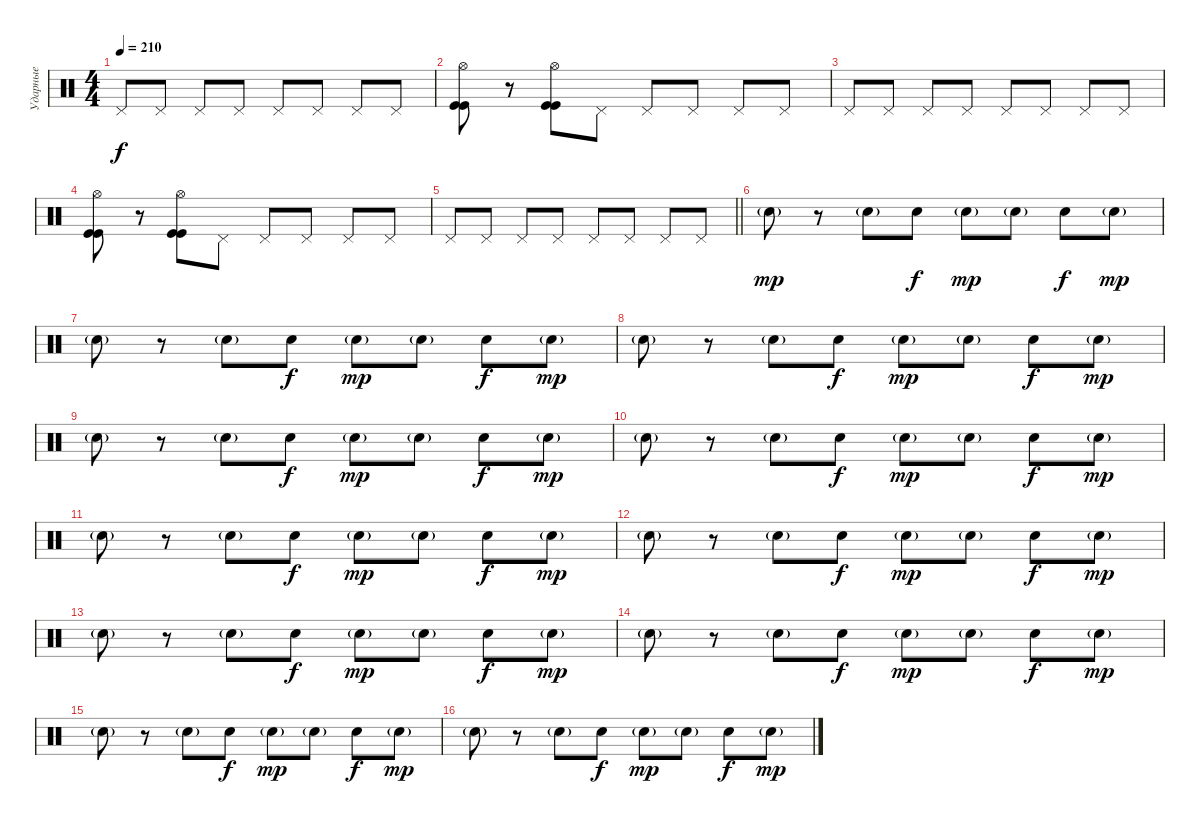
\track ("Ударные" "Ударные") {instrument percussion}
\staff {score}
\articulation defaults
\ts (4 4)
\tempo 210
\clef neutral
\ks c "Pedal Hi-Hat (hit)".8{dy f} "Pedal Hi-Hat (hit)".8 "Pedal Hi-Hat (hit)".8 "Pedal Hi-Hat (hit)".8 "Pedal Hi-Hat (hit)".8 "Pedal Hi-Hat (hit)".8 "Pedal Hi-Hat (hit)".8 "Pedal Hi-Hat (hit)".8
|
("Hi-Hat (open)" "Kick (hit)" "Kick (hit)").8 r.8 ("Hi-Hat (open)" "Kick (hit)" "Kick (hit)").8 "Pedal Hi-Hat (hit)".8 "Pedal Hi-Hat (hit)".8 "Pedal Hi-Hat (hit)".8 "Pedal Hi-Hat (hit)".8 "Pedal Hi-Hat (hit)".8 |
"Pedal Hi-Hat (hit)".8 "Pedal Hi-Hat (hit)".8 "Pedal Hi-Hat (hit)".8 "Pedal Hi-Hat (hit)".8 "Pedal Hi-Hat (hit)".8 "Pedal Hi-Hat (hit)".8 "Pedal Hi-Hat (hit)".8 "Pedal Hi-Hat (hit)".8 |
("Hi-Hat (open)" "Kick (hit)" "Kick (hit)").8 r.8 ("Hi-Hat (open)" "Kick (hit)" "Kick (hit)").8 "Pedal Hi-Hat (hit)".8 "Pedal Hi-Hat (hit)".8 "Pedal Hi-Hat (hit)".8 "Pedal Hi-Hat (hit)".8 "Pedal Hi-Hat (hit)".8 |
\barLineRight lightlight "Pedal Hi-Hat (hit)".8 "Pedal Hi-Hat (hit)".8 "Pedal Hi-Hat (hit)".8 "Pedal Hi-Hat (hit)".8 "Pedal Hi-Hat (hit)".8 "Pedal Hi-Hat (hit)".8 "Pedal Hi-Hat (hit)".8 "Pedal Hi-Hat (hit)".8
|
"Electric Snare (hit)"{g}.8{dy mp} r.8 "Electric Snare (hit)"{g}.8 "Electric Snare (hit)".8{dy f} "Electric Snare (hit)"{g}.8{dy mp} "Electric Snare (hit)"{g}.8 "Electric Snare (hit)".8{dy f} "Electric Snare (hit)"{g}.8{dy mp} |
"Electric Snare (hit)"{g}.8 r.8 "Electric Snare (hit)"{g}.8 "Electric Snare (hit)".8{dy f} "Electric Snare (hit)"{g}.8{dy mp} "Electric Snare (hit)"{g}.8 "Electric Snare (hit)".8{dy f} "Electric Snare (hit)"{g}.8{dy mp} |
"Electric Snare (hit)"{g}.8 r.8 "Electric Snare (hit)"{g}.8 "Electric Snare (hit)".8{dy f} "Electric Snare (hit)"{g}.8{dy mp} "Electric Snare (hit)"{g}.8 "Electric Snare (hit)".8{dy f} "Electric Snare (hit)"{g}.8{dy mp} |
"Electric Snare (hit)"{g}.8 r.8 "Electric Snare (hit)"{g}.8 "Electric Snare (hit)".8{dy f} "Electric Snare (hit)"{g}.8{dy mp} "Electric Snare (hit)"{g}.8 "Electric Snare (hit)".8{dy f} "Electric Snare (hit)"{g}.8{dy mp} |
"Electric Snare (hit)"{g}.8 r.8 "Electric Snare (hit)"{g}.8 "Electric Snare (hit)".8{dy f} "Electric Snare (hit)"{g}.8{dy mp} "Electric Snare (hit)"{g}.8 "Electric Snare (hit)".8{dy f} "Electric Snare (hit)"{g}.8{dy mp} |
"Electric Snare (hit)"{g}.8 r.8 "Electric Snare (hit)"{g}.8 "Electric Snare (hit)".8{dy f} "Electric Snare (hit)"{g}.8{dy mp} "Electric Snare (hit)"{g}.8 "Electric Snare (hit)".8{dy f} "Electric Snare (hit)"{g}.8{dy mp} |
"Electric Snare (hit)"{g}.8 r.8 "Electric Snare (hit)"{g}.8 "Electric Snare (hit)".8{dy f} "Electric Snare (hit)"{g}.8{dy mp} "Electric Snare (hit)"{g}.8 "Electric Snare (hit)".8{dy f} "Electric Snare (hit)"{g}.8{dy mp} |
"Electric Snare (hit)"{g}.8 r.8 "Electric Snare (hit)"{g}.8 "Electric Snare (hit)".8{dy f} "Electric Snare (hit)"{g}.8{dy mp} "Electric Snare (hit)"{g}.8 "Electric Snare (hit)".8{dy f} "Electric Snare (hit)"{g}.8{dy mp} |
"Electric Snare (hit)"{g}.8 r.8 "Electric Snare (hit)"{g}.8 "Electric Snare (hit)".8{dy f} "Electric Snare (hit)"{g}.8{dy mp} "Electric Snare (hit)"{g}.8 "Electric Snare (hit)".8{dy f} "Electric Snare (hit)"{g}.8{dy mp} |
"Electric Snare (hit)"{g}.8 r.8 "Electric Snare (hit)"{g}.8 "Electric Snare (hit)".8{dy f} "Electric Snare (hit)"{g}.8{dy mp} "Electric Snare (hit)"{g}.8 "Electric Snare (hit)".8{dy f} "Electric Snare (hit)"{g}.8{dy mp} |
"Electric Snare (hit)"{g}.8 r.8 "Electric Snare (hit)"{g}.8 "Electric Snare (hit)".8{dy f} "Electric Snare (hit)"{g}.8{dy mp} "Electric Snare (hit)"{g}.8 "Electric Snare (hit)".8{dy f} "Electric Snare (hit)"{g}.8{dy mp}
